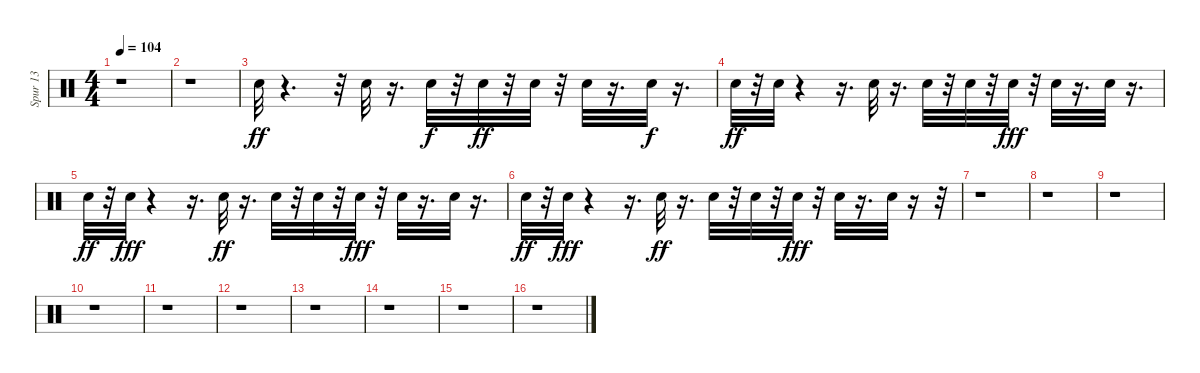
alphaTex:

\track ("Spur 13" "Spur 13") {instrument percussion}
\staff {score}
\articulation defaults
\ts (4 4)
\tempo 104
\clef neutral
\ks c
r.1{dy ff} |
r.1 |
"Snare (hit) 2".32 r.4{d} r.32 "Snare (hit) 2".32 r.16{d} "Snare (hit) 2".32{dy f} r.32 "Snare (hit) 2".32{dy ff} r.32 "Snare (hit) 2".32 r.32 "Snare (hit) 2".32 r.16{d} "Snare (hit) 2".32{dy f} r.16{d} |
"Snare (hit) 2".32{dy ff} r.32 "Snare (hit) 2".32 r.4 r.16{d} "Snare (hit) 2".32 r.16{d} "Snare (hit) 2".32 r.32 "Snare (hit) 2".32 r.32 "Snare (hit) 2".32{dy fff} r.32 "Snare (hit) 2".32 r.16{d} "Snare (hit) 2".32 r.16{d} |
"Snare (hit) 2".32{dy ff} r.32 "Snare (hit) 2".32{dy fff} r.4 r.16{d} "Snare (hit) 2".32{dy ff} r.16{d} "Snare (hit) 2".32 r.32 "Snare (hit) 2".32 r.32 "Snare (hit) 2".32{dy fff} r.32 "Snare (hit) 2".32 r.16{d} "Snare (hit) 2".32 r.16{d} |
"Snare (hit) 2".32{dy ff} r.32 "Snare (hit) 2".32{dy fff} r.4 r.16{d} "Snare (hit) 2".32{dy ff} r.16{d} "Snare (hit) 2".32 r.32 "Snare (hit) 2".32 r.32 "Snare (hit) 2".32{dy fff} r.32 "Snare (hit) 2".32 r.16{d} "Snare (hit) 2".32 r.16 r.32 |
r.1 |
r.1 |
r.1 |
r.1 |
r.1 |
r.1 |
r.1 |
r.1 |
r.1 |
r.1
